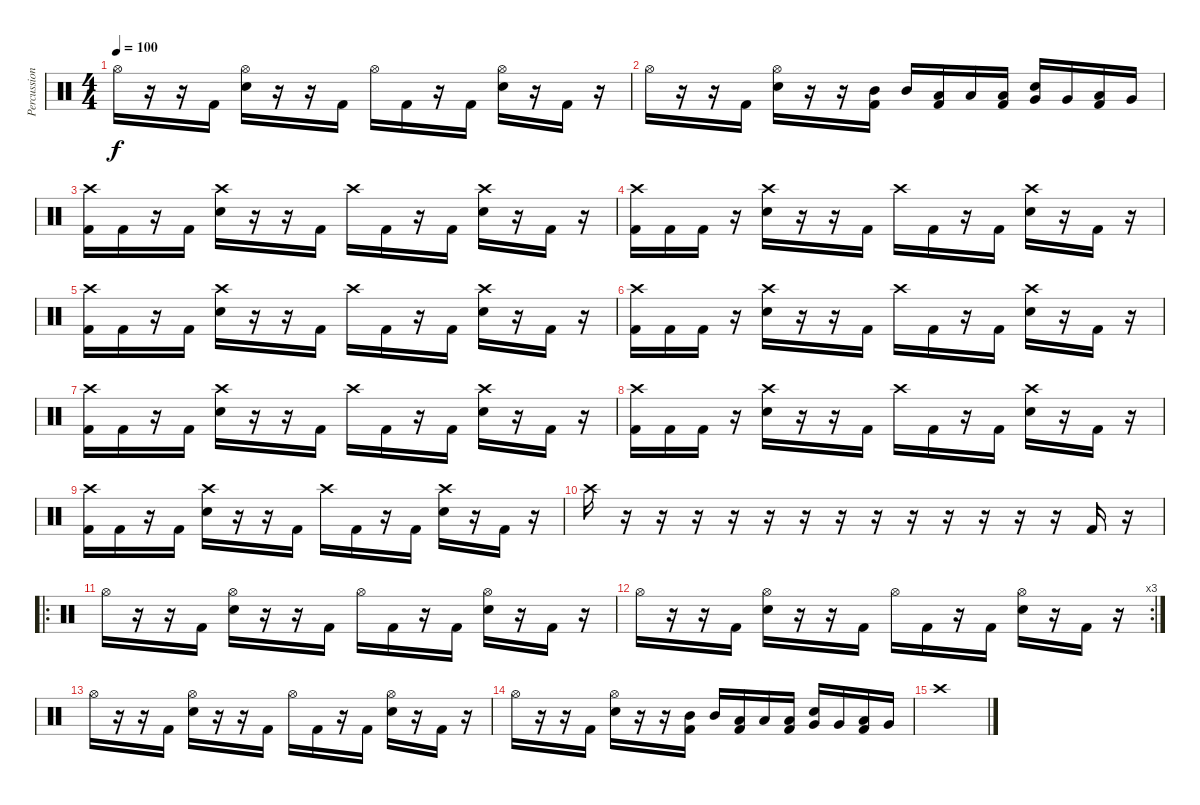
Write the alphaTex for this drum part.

\track ("Percussion" "Percussion") {instrument percussion}
\staff {score}
\articulation defaults
\ts (4 4)
\tempo 100
\clef neutral
\ks c "Hi-Hat (open)".16{dy f}
r.16 r.16 "Kick (hit) 2".16 ("Hi-Hat (open)" "Electric Snare (hit)").16 r.16 r.16 "Kick (hit) 2".16 "Hi-Hat (open)".16 "Kick (hit) 2".16 r.16 "Kick (hit) 2".16 ("Hi-Hat (open)" "Electric Snare (hit)").16 r.16 "Kick (hit) 2".16 r.16 |
"Hi-Hat (open)".16 r.16 r.16 "Kick (hit) 2".16 ("Hi-Hat (open)" "Electric Snare (hit)").16 r.16 r.16 ("Mid Tom (hit)" "Kick (hit) 2").16 "Mid Tom (hit)".16 ("Low Tom (hit)" "Kick (hit) 2").16 "Low Tom (hit)".16 ("Low Tom (hit)" "Kick (hit) 2").16 ("Very Low Tom (hit)" "Electric Snare (hit)").16 "Very Low Tom (hit)".16 ("Low Floor Tom (hit)" "Kick (hit) 2").16 "Very Low Tom (hit)".16 |
("Crash high (hit)" "Kick (hit) 2").16 "Kick (hit) 2".16 r.16 "Kick (hit) 2".16 ("Crash high (hit)" "Electric Snare (hit)").16 r.16 r.16 "Kick (hit) 2".16 "Crash high (hit)".16 "Kick (hit) 2".16 r.16 "Kick (hit) 2".16 ("Crash high (hit)" "Electric Snare (hit)").16 r.16 "Kick (hit) 2".16 r.16 |
("Crash high (hit)" "Kick (hit) 2").16 "Kick (hit) 2".16 "Kick (hit) 2".16 r.16 ("Crash high (hit)" "Electric Snare (hit)").16 r.16 r.16 "Kick (hit) 2".16 "Crash high (hit)".16 "Kick (hit) 2".16 r.16 "Kick (hit) 2".16 ("Crash high (hit)" "Electric Snare (hit)").16 r.16 "Kick (hit) 2".16 r.16 |
("Crash high (hit)" "Kick (hit) 2").16 "Kick (hit) 2".16 r.16 "Kick (hit) 2".16 ("Crash high (hit)" "Electric Snare (hit)").16 r.16 r.16 "Kick (hit) 2".16 "Crash high (hit)".16 "Kick (hit) 2".16 r.16 "Kick (hit) 2".16 ("Crash high (hit)" "Electric Snare (hit)").16 r.16 "Kick (hit) 2".16 r.16 |
("Crash high (hit)" "Kick (hit) 2").16 "Kick (hit) 2".16 "Kick (hit) 2".16 r.16 ("Crash high (hit)" "Electric Snare (hit)").16 r.16 r.16 "Kick (hit) 2".16 "Crash high (hit)".16 "Kick (hit) 2".16 r.16 "Kick (hit) 2".16 ("Crash high (hit)" "Electric Snare (hit)").16 r.16 "Kick (hit) 2".16 r.16 |
("Crash high (hit)" "Kick (hit) 2").16 "Kick (hit) 2".16 r.16 "Kick (hit) 2".16 ("Crash high (hit)" "Electric Snare (hit)").16 r.16 r.16 "Kick (hit) 2".16 "Crash high (hit)".16 "Kick (hit) 2".16 r.16 "Kick (hit) 2".16 ("Crash high (hit)" "Electric Snare (hit)").16 r.16 "Kick (hit) 2".16 r.16 |
("Crash high (hit)" "Kick (hit) 2").16 "Kick (hit) 2".16 "Kick (hit) 2".16 r.16 ("Crash high (hit)" "Electric Snare (hit)").16 r.16 r.16 "Kick (hit) 2".16 "Crash high (hit)".16 "Kick (hit) 2".16 r.16 "Kick (hit) 2".16 ("Crash high (hit)" "Electric Snare (hit)").16 r.16 "Kick (hit) 2".16 r.16 |
("Crash high (hit)" "Kick (hit) 2").16 "Kick (hit) 2".16 r.16 "Kick (hit) 2".16 ("Crash high (hit)" "Electric Snare (hit)").16 r.16 r.16 "Kick (hit) 2".16 "Crash high (hit)".16 "Kick (hit) 2".16 r.16 "Kick (hit) 2".16 ("Crash high (hit)" "Electric Snare (hit)").16 r.16 "Kick (hit) 2".16 r.16 |
"Crash high (hit)".16 r.16 r.16 r.16 r.16 r.16 r.16 r.16 r.16 r.16 r.16 r.16 r.16 r.16 "Kick (hit) 2".16 r.16 |
\ro "Hi-Hat (open)".16
r.16 r.16 "Kick (hit) 2".16 ("Hi-Hat (open)" "Electric Snare (hit)").16 r.16 r.16 "Kick (hit) 2".16 "Hi-Hat (open)".16 "Kick (hit) 2".16 r.16 "Kick (hit) 2".16 ("Hi-Hat (open)" "Electric Snare (hit)").16 r.16 "Kick (hit) 2".16 r.16 |
\rc 3 "Hi-Hat (open)".16
r.16 r.16 "Kick (hit) 2".16 ("Hi-Hat (open)" "Electric Snare (hit)").16 r.16 r.16 "Kick (hit) 2".16 "Hi-Hat (open)".16 "Kick (hit) 2".16 r.16 "Kick (hit) 2".16 ("Hi-Hat (open)" "Electric Snare (hit)").16 r.16 "Kick (hit) 2".16 r.16 |
"Hi-Hat (open)".16 r.16 r.16 "Kick (hit) 2".16 ("Hi-Hat (open)" "Electric Snare (hit)").16 r.16 r.16 "Kick (hit) 2".16 "Hi-Hat (open)".16 "Kick (hit) 2".16 r.16 "Kick (hit) 2".16 ("Hi-Hat (open)" "Electric Snare (hit)").16 r.16 "Kick (hit) 2".16 r.16 |
"Hi-Hat (open)".16 r.16 r.16 "Kick (hit) 2".16 ("Hi-Hat (open)" "Electric Snare (hit)").16 r.16 r.16 ("Mid Tom (hit)" "Kick (hit) 2").16 "Mid Tom (hit)".16 ("Low Tom (hit)" "Kick (hit) 2").16 "Low Tom (hit)".16 ("Low Tom (hit)" "Kick (hit) 2").16 ("Very Low Tom (hit)" "Electric Snare (hit)").16 "Very Low Tom (hit)".16 ("Low Floor Tom (hit)" "Kick (hit) 2").16 "Very Low Tom (hit)".16 |
"Crash high (hit)".1
